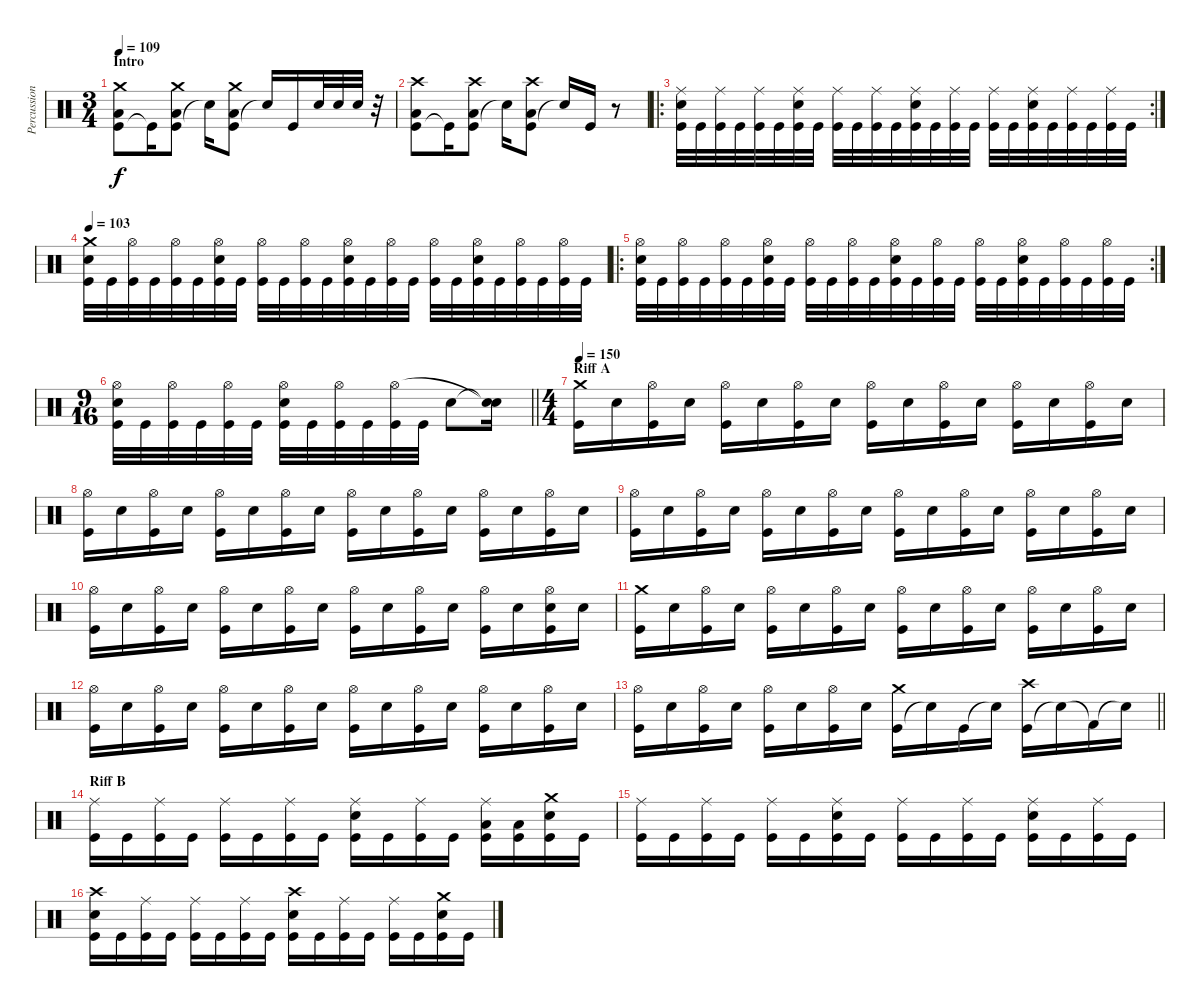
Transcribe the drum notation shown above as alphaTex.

\track ("Percussion" "Percussion") {instrument percussion}
\staff {score}
\articulation defaults
\ts (3 4)
\section ("" "Intro")
\tempo 109
\clef neutral
\ks c
("Kick (hit)" "Low Floor Tom (hit)" "Crash medium (hit)").8{dy f} "Kick (hit)"{t}.16 ("Kick (hit)" "Low Floor Tom (hit)" "Crash medium (hit)").8 "Snare (hit)"{t}.16 ("Kick (hit)" "Low Floor Tom (hit)" "Crash medium (hit)").8 "Snare (hit)"{t}.16 "Kick (hit)".16 "Snare (hit) 2".32 "Snare (hit) 2".32 "Snare (hit) 2".32 r.32 |
("Kick (hit)" "Low Floor Tom (hit)" "Crash high (hit)").8 "Kick (hit)"{t}.16 ("Kick (hit)" "Low Floor Tom (hit)" "Crash high (hit)").8 "Snare (hit)"{t}.16 ("Kick (hit)" "Low Floor Tom (hit)" "Crash high (hit)").8 "Snare (hit)"{t}.16 "Kick (hit)".16 r.8 |
\ro
\rc 2
("Kick (hit)" "Ride (middle)" "Snare (hit) 2").32 "Kick (hit)".32 ("Kick (hit)" "Ride (middle)").32 "Kick (hit)".32 ("Kick (hit)" "Ride (middle)").32 "Kick (hit)".32 ("Kick (hit)" "Ride (middle)" "Snare (hit) 2").32 "Kick (hit)".32 ("Kick (hit)" "Ride (middle)").32 "Kick (hit)".32 ("Kick (hit)" "Ride (middle)").32 "Kick (hit)".32 ("Kick (hit)" "Ride (middle)" "Snare (hit) 2").32 "Kick (hit)".32 ("Kick (hit)" "Ride (middle)").32 "Kick (hit)".32 ("Kick (hit)" "Ride (middle)").32 "Kick (hit)".32 ("Kick (hit)" "Ride (middle)" "Snare (hit) 2").32 "Kick (hit)".32 ("Kick (hit)" "Ride (middle)").32 "Kick (hit)".32 ("Kick (hit)" "Ride (middle)").32 "Kick (hit)".32 |
\tempo 103
("Kick (hit)" "Crash medium (hit)" "Snare (hit) 2").32 "Kick (hit)".32 ("Kick (hit)" "Hi-Hat (open)").32 "Kick (hit)".32 ("Kick (hit)" "Hi-Hat (open)").32 "Kick (hit)".32 ("Kick (hit)" "Hi-Hat (open)" "Snare (hit) 2").32 "Kick (hit)".32 ("Kick (hit)" "Hi-Hat (open)").32 "Kick (hit)".32 ("Kick (hit)" "Hi-Hat (open)").32 "Kick (hit)".32 ("Kick (hit)" "Hi-Hat (open)" "Snare (hit) 2").32 "Kick (hit)".32 ("Kick (hit)" "Hi-Hat (open)").32 "Kick (hit)".32 ("Kick (hit)" "Hi-Hat (open)").32 "Kick (hit)".32 ("Kick (hit)" "Hi-Hat (open)" "Snare (hit) 2").32 "Kick (hit)".32 ("Kick (hit)" "Hi-Hat (open)").32 "Kick (hit)".32 ("Kick (hit)" "Hi-Hat (open)").32 "Kick (hit)".32 |
\ro
\rc 2
("Kick (hit)" "Hi-Hat (open)" "Snare (hit) 2").32 "Kick (hit)".32 ("Kick (hit)" "Hi-Hat (open)").32 "Kick (hit)".32 ("Kick (hit)" "Hi-Hat (open)").32 "Kick (hit)".32 ("Kick (hit)" "Hi-Hat (open)" "Snare (hit) 2").32 "Kick (hit)".32 ("Kick (hit)" "Hi-Hat (open)").32 "Kick (hit)".32 ("Kick (hit)" "Hi-Hat (open)").32 "Kick (hit)".32 ("Kick (hit)" "Hi-Hat (open)" "Snare (hit) 2").32 "Kick (hit)".32 ("Kick (hit)" "Hi-Hat (open)").32 "Kick (hit)".32 ("Kick (hit)" "Hi-Hat (open)").32 "Kick (hit)".32 ("Kick (hit)" "Hi-Hat (open)" "Snare (hit) 2").32 "Kick (hit)".32 ("Kick (hit)" "Hi-Hat (open)").32 "Kick (hit)".32 ("Kick (hit)" "Hi-Hat (open)").32 "Kick (hit)".32 |
\ts (9 16)
\barLineRight lightlight
("Kick (hit)" "Hi-Hat (open)" "Snare (hit) 2").32 "Kick (hit)".32 ("Kick (hit)" "Hi-Hat (open)").32 "Kick (hit)".32 ("Kick (hit)" "Hi-Hat (open)").32 "Kick (hit)".32 ("Kick (hit)" "Hi-Hat (open)" "Snare (hit) 2").32 "Kick (hit)".32 ("Kick (hit)" "Hi-Hat (open)").32 "Kick (hit)".32 ("Kick (hit)" "Hi-Hat (open)").32 "Kick (hit)".32 "Snare (hit) 2".8 ("Snare (hit)"{t} "Snare (hit)"{t}).16 |
\ts (4 4)
\section ("" "Riff A")
\tempo 150
("Kick (hit)" "Crash medium (hit)").16 "Snare (hit) 2".16 ("Kick (hit)" "Hi-Hat (open)").16 "Snare (hit) 2".16 ("Kick (hit)" "Hi-Hat (open)").16 "Snare (hit) 2".16 ("Kick (hit)" "Hi-Hat (open)").16 "Snare (hit) 2".16 ("Kick (hit)" "Hi-Hat (open)").16 "Snare (hit) 2".16 ("Kick (hit)" "Hi-Hat (open)").16 "Snare (hit) 2".16 ("Kick (hit)" "Hi-Hat (open)").16 "Snare (hit) 2".16 ("Kick (hit)" "Hi-Hat (open)").16 "Snare (hit) 2".16 |
("Kick (hit)" "Hi-Hat (open)").16 "Snare (hit) 2".16 ("Kick (hit)" "Hi-Hat (open)").16 "Snare (hit) 2".16 ("Kick (hit)" "Hi-Hat (open)").16 "Snare (hit) 2".16 ("Kick (hit)" "Hi-Hat (open)").16 "Snare (hit) 2".16 ("Kick (hit)" "Hi-Hat (open)").16 "Snare (hit) 2".16 ("Kick (hit)" "Hi-Hat (open)").16 "Snare (hit) 2".16 ("Kick (hit)" "Hi-Hat (open)").16 "Snare (hit) 2".16 ("Kick (hit)" "Hi-Hat (open)").16 "Snare (hit) 2".16 |
("Kick (hit)" "Hi-Hat (open)").16 "Snare (hit) 2".16 ("Kick (hit)" "Hi-Hat (open)").16 "Snare (hit) 2".16 ("Kick (hit)" "Hi-Hat (open)").16 "Snare (hit) 2".16 ("Kick (hit)" "Hi-Hat (open)").16 "Snare (hit) 2".16 ("Kick (hit)" "Hi-Hat (open)").16 "Snare (hit) 2".16 ("Kick (hit)" "Hi-Hat (open)").16 "Snare (hit) 2".16 ("Kick (hit)" "Hi-Hat (open)").16 "Snare (hit) 2".16 ("Kick (hit)" "Hi-Hat (open)").16 "Snare (hit) 2".16 |
("Kick (hit)" "Hi-Hat (open)").16 "Snare (hit) 2".16 ("Kick (hit)" "Hi-Hat (open)").16 "Snare (hit) 2".16 ("Kick (hit)" "Hi-Hat (open)").16 "Snare (hit) 2".16 ("Kick (hit)" "Hi-Hat (open)").16 "Snare (hit) 2".16 ("Kick (hit)" "Hi-Hat (open)").16 "Snare (hit) 2".16 ("Kick (hit)" "Hi-Hat (open)").16 "Snare (hit) 2".16 ("Kick (hit)" "Hi-Hat (open)").16 "Snare (hit) 2".16 ("Kick (hit)" "Snare (hit) 2" "Hi-Hat (open)").16 "Snare (hit) 2".16 |
("Kick (hit)" "Crash medium (hit)").16 "Snare (hit) 2".16 ("Kick (hit)" "Hi-Hat (open)").16 "Snare (hit) 2".16 ("Kick (hit)" "Hi-Hat (open)").16 "Snare (hit) 2".16 ("Kick (hit)" "Hi-Hat (open)").16 "Snare (hit) 2".16 ("Kick (hit)" "Hi-Hat (open)").16 "Snare (hit) 2".16 ("Kick (hit)" "Hi-Hat (open)").16 "Snare (hit) 2".16 ("Kick (hit)" "Hi-Hat (open)").16 "Snare (hit) 2".16 ("Kick (hit)" "Hi-Hat (open)").16 "Snare (hit) 2".16 |
("Kick (hit)" "Hi-Hat (open)").16 "Snare (hit) 2".16 ("Kick (hit)" "Hi-Hat (open)").16 "Snare (hit) 2".16 ("Kick (hit)" "Hi-Hat (open)").16 "Snare (hit) 2".16 ("Kick (hit)" "Hi-Hat (open)").16 "Snare (hit) 2".16 ("Kick (hit)" "Hi-Hat (open)").16 "Snare (hit) 2".16 ("Kick (hit)" "Hi-Hat (open)").16 "Snare (hit) 2".16 ("Kick (hit)" "Hi-Hat (open)").16 "Snare (hit) 2".16 ("Kick (hit)" "Hi-Hat (open)").16 "Snare (hit) 2".16 |
\barLineRight lightlight
("Kick (hit)" "Hi-Hat (open)").16 "Snare (hit) 2".16 ("Kick (hit)" "Hi-Hat (open)").16 "Snare (hit) 2".16 ("Kick (hit)" "Hi-Hat (open)").16 "Snare (hit) 2".16 ("Kick (hit)" "Hi-Hat (open)").16 "Snare (hit) 2".16 ("Kick (hit)" "Crash medium (hit)").16 "Snare (hit) 2"{t}.16 "Kick (hit)".16 "Snare (hit) 2"{t}.16 ("Kick (hit)" "Crash high (hit)").16 "Snare (hit) 2"{t}.16 "Kick (hit) 2"{t}.16 "Snare (hit) 2"{t}.16 |
\section ("" "Riff B")
("Kick (hit)" "Ride (middle)").16 "Kick (hit)".16 ("Kick (hit)" "Ride (middle)").16 "Kick (hit)".16 ("Kick (hit)" "Ride (middle)").16 "Kick (hit)".16 ("Kick (hit)" "Ride (middle)").16 "Kick (hit)".16 ("Kick (hit)" "Ride (middle)" "Snare (hit) 2").16 "Kick (hit)".16 ("Kick (hit)" "Ride (middle)").16 "Kick (hit)".16 ("Kick (hit)" "Ride (middle)" "Low Floor Tom (hit)").16 ("Kick (hit)" "Low Floor Tom (hit)").16 ("Kick (hit)" "Crash medium (hit)" "Snare (hit) 2").16 "Kick (hit)".16 |
("Kick (hit)" "Ride (middle)").16 "Kick (hit)".16 ("Kick (hit)" "Ride (middle)").16 "Kick (hit)".16 ("Kick (hit)" "Ride (middle)").16 "Kick (hit)".16 ("Kick (hit)" "Ride (middle)" "Snare (hit) 2").16 "Kick (hit)".16 ("Kick (hit)" "Ride (middle)").16 "Kick (hit)".16 ("Kick (hit)" "Ride (middle)").16 "Kick (hit)".16 ("Kick (hit)" "Ride (middle)" "Snare (hit) 2").16 "Kick (hit)".16 ("Kick (hit)" "Ride (middle)").16 "Kick (hit)".16 |
("Kick (hit)" "Crash high (hit)" "Snare (hit) 2").16 "Kick (hit)".16 ("Kick (hit)" "Ride (middle)").16 "Kick (hit)".16 ("Kick (hit)" "Ride (middle)").16 "Kick (hit)".16 ("Kick (hit)" "Ride (middle)").16 "Kick (hit)".16 ("Kick (hit)" "Crash high (hit)" "Snare (hit) 2").16 "Kick (hit)".16 ("Kick (hit)" "Ride (middle)").16 "Kick (hit)".16 ("Kick (hit)" "Ride (middle)").16 "Kick (hit)".16 ("Kick (hit)" "Crash medium (hit)" "Snare (hit) 2").16 "Kick (hit)".16
